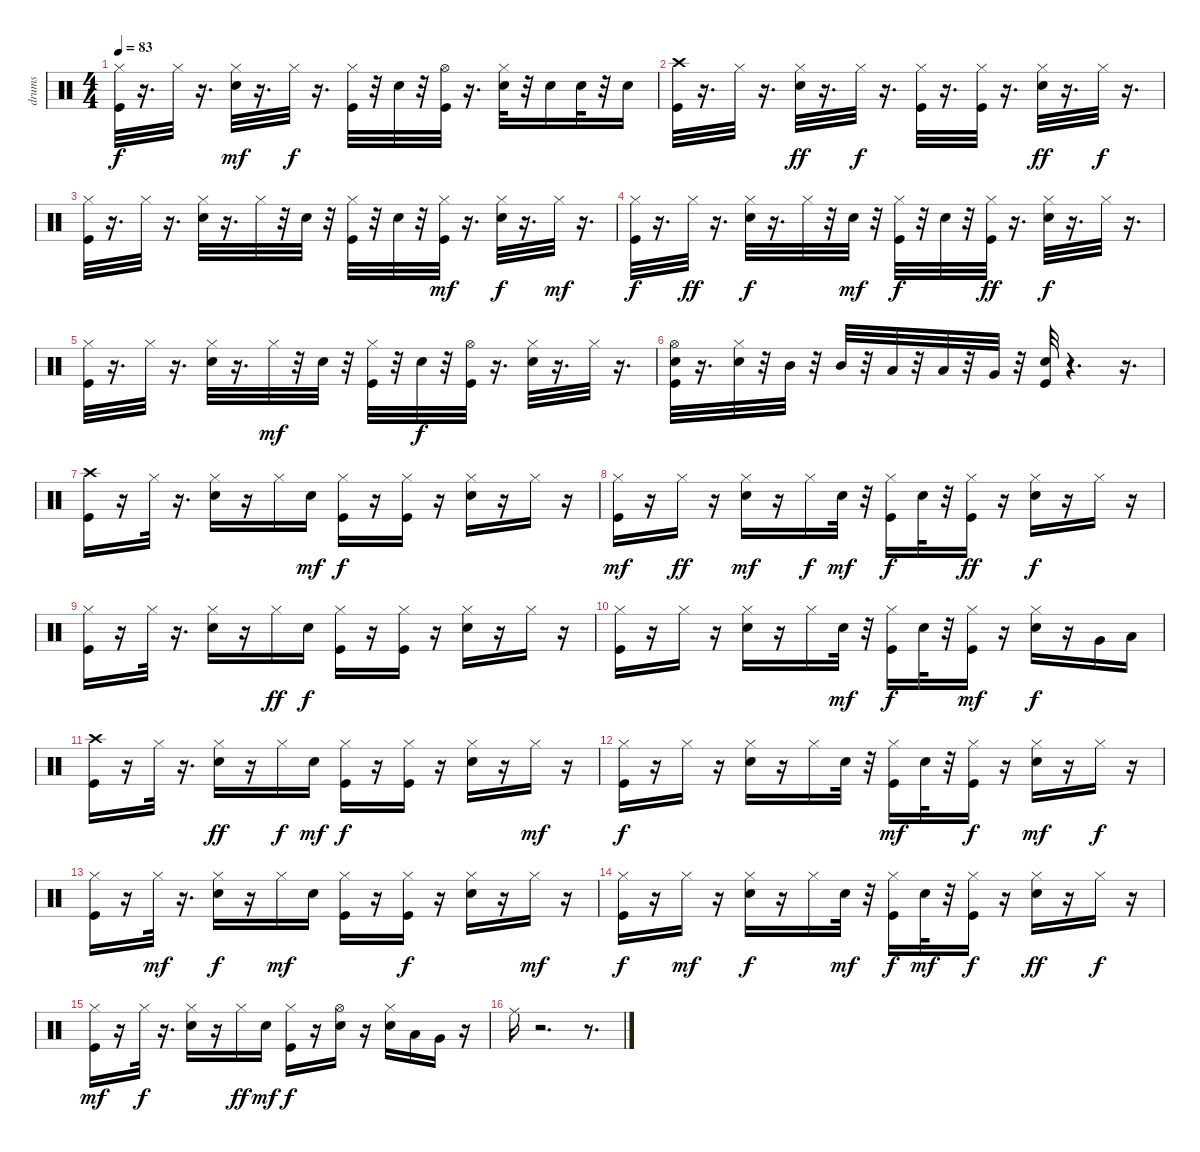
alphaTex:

\track ("drums" "drums") {instrument percussion}
\staff {score}
\articulation defaults
\ts (4 4)
\tempo 83
\clef neutral
\ks c
("Hi-Hat (closed)" "Kick (hit)").32{dy f} r.16{d} "Hi-Hat (closed)".32 r.16{d} ("Electric Snare (hit)" "Hi-Hat (closed)").32{dy mf} r.16{d} "Hi-Hat (closed)".32{dy f} r.16{d} ("Kick (hit)" "Hi-Hat (closed)").32 r.32 "Electric Snare (hit)".32 r.32 ("Hi-Hat (open)" "Kick (hit)").32 r.16{d} ("Electric Snare (hit)" "Hi-Hat (closed)").32 r.32 "Electric Snare (hit)".16 "Electric Snare (hit)".32 r.32 "Electric Snare (hit)".16 |
("Kick (hit)" "Crash high (hit)").32 r.16{d} "Hi-Hat (closed)".32 r.16{d} ("Hi-Hat (closed)" "Electric Snare (hit)").32{dy ff} r.16{d} "Hi-Hat (closed)".32{dy f} r.16{d} ("Hi-Hat (closed)" "Kick (hit)").32 r.16{d} ("Hi-Hat (closed)" "Kick (hit)").32 r.16{d} ("Electric Snare (hit)" "Hi-Hat (closed)").32{dy ff} r.16{d} "Hi-Hat (closed)".32{dy f} r.16{d} |
("Kick (hit)" "Hi-Hat (closed)").32 r.16{d} "Hi-Hat (closed)".32 r.16{d} ("Electric Snare (hit)" "Hi-Hat (closed)").32 r.16{d} "Hi-Hat (closed)".32 r.32 "Electric Snare (hit)".32 r.32 ("Hi-Hat (closed)" "Kick (hit)").32 r.32 "Electric Snare (hit)".32 r.32 ("Kick (hit)" "Hi-Hat (closed)").32{dy mf} r.16{d} ("Electric Snare (hit)" "Hi-Hat (closed)").32{dy f} r.16{d} "Hi-Hat (closed)".32{dy mf} r.16{d} |
("Hi-Hat (closed)" "Kick (hit)").32{dy f} r.16{d} "Hi-Hat (closed)".32{dy ff} r.16{d} ("Hi-Hat (closed)" "Electric Snare (hit)").32{dy f} r.16{d} "Hi-Hat (closed)".32 r.32 "Electric Snare (hit)".32{dy mf} r.32 ("Kick (hit)" "Hi-Hat (closed)").32{dy f} r.32 "Electric Snare (hit)".32 r.32 ("Hi-Hat (closed)" "Kick (hit)").32{dy ff} r.16{d} ("Hi-Hat (closed)" "Electric Snare (hit)").32{dy f} r.16{d} "Hi-Hat (closed)".32 r.16{d} |
("Kick (hit)" "Hi-Hat (closed)").32 r.16{d} "Hi-Hat (closed)".32 r.16{d} ("Electric Snare (hit)" "Hi-Hat (closed)").32 r.16{d} "Hi-Hat (closed)".32{dy mf} r.32 "Electric Snare (hit)".32 r.32 ("Kick (hit)" "Hi-Hat (closed)").32 r.32 "Electric Snare (hit)".32{dy f} r.32 ("Kick (hit)" "Hi-Hat (open)").32 r.16{d} ("Electric Snare (hit)" "Hi-Hat (closed)").32 r.16{d} "Hi-Hat (closed)".32 r.16{d} |
("Hi-Hat (open)" "Kick (hit)" "Electric Snare (hit)").32 r.16{d} ("Hi-Hat (closed)" "Electric Snare (hit)").32 r.32 "Mid Tom (hit)".32 r.32 "Mid Tom (hit)".32 r.32 "Low Tom (hit)".32 r.32 "Low Tom (hit)".32 r.32 "Very Low Tom (hit)".32 r.32 ("Kick (hit)" "Electric Snare (hit)").32 r.4{d} r.16{d} |
("Crash high (hit)" "Kick (hit)").16 r.16 "Hi-Hat (closed)".32 r.16{d} ("Hi-Hat (closed)" "Electric Snare (hit)").16 r.16 "Hi-Hat (closed)".16 "Electric Snare (hit)".16{dy mf} ("Kick (hit)" "Hi-Hat (closed)").16{dy f} r.16 ("Hi-Hat (closed)" "Kick (hit)").16 r.16 ("Electric Snare (hit)" "Hi-Hat (closed)").16 r.16 "Hi-Hat (closed)".16 r.16 |
("Kick (hit)" "Hi-Hat (closed)").16{dy mf} r.16 "Hi-Hat (closed)".16{dy ff} r.16 ("Hi-Hat (closed)" "Electric Snare (hit)").16{dy mf} r.16 "Hi-Hat (closed)".16{dy f} "Electric Snare (hit)".32{dy mf} r.32 ("Hi-Hat (closed)" "Kick (hit)").16{dy f} "Electric Snare (hit)".32 r.32 ("Kick (hit)" "Hi-Hat (closed)").16{dy ff} r.16 ("Electric Snare (hit)" "Hi-Hat (closed)").16{dy f} r.16 "Hi-Hat (closed)".16 r.16 |
("Kick (hit)" "Hi-Hat (closed)").16 r.16 "Hi-Hat (closed)".32 r.16{d} ("Hi-Hat (closed)" "Electric Snare (hit)").16 r.16 "Hi-Hat (closed)".16{dy ff} "Electric Snare (hit)".16{dy f} ("Kick (hit)" "Hi-Hat (closed)").16 r.16 ("Hi-Hat (closed)" "Kick (hit)").16 r.16 ("Hi-Hat (closed)" "Electric Snare (hit)").16 r.16 "Hi-Hat (closed)".16 r.16 |
("Kick (hit)" "Hi-Hat (closed)").16 r.16 "Hi-Hat (closed)".16 r.16 ("Hi-Hat (closed)" "Electric Snare (hit)").16 r.16 "Hi-Hat (closed)".16 "Electric Snare (hit)".32{dy mf} r.32 ("Hi-Hat (closed)" "Kick (hit)").16{dy f} "Electric Snare (hit)".32 r.32 ("Hi-Hat (closed)" "Kick (hit)").16{dy mf} r.16 ("Electric Snare (hit)" "Hi-Hat (closed)").16{dy f} r.16 "Very Low Tom (hit)".16 "Low Floor Tom (hit)".16 |
("Crash high (hit)" "Kick (hit)").16 r.16 "Hi-Hat (closed)".32 r.16{d} ("Electric Snare (hit)" "Hi-Hat (closed)").16{dy ff} r.16 "Hi-Hat (closed)".16{dy f} "Electric Snare (hit)".16{dy mf} ("Hi-Hat (closed)" "Kick (hit)").16{dy f} r.16 ("Kick (hit)" "Hi-Hat (closed)").16 r.16 ("Electric Snare (hit)" "Hi-Hat (closed)").16 r.16 "Hi-Hat (closed)".16{dy mf} r.16 |
("Hi-Hat (closed)" "Kick (hit)").16{dy f} r.16 "Hi-Hat (closed)".16 r.16 ("Electric Snare (hit)" "Hi-Hat (closed)").16 r.16 "Hi-Hat (closed)".16 "Electric Snare (hit)".32 r.32 ("Kick (hit)" "Hi-Hat (closed)").16{dy mf} "Electric Snare (hit)".32 r.32 ("Hi-Hat (closed)" "Kick (hit)").16{dy f} r.16 ("Electric Snare (hit)" "Hi-Hat (closed)").16{dy mf} r.16 "Hi-Hat (closed)".16{dy f} r.16 |
("Hi-Hat (closed)" "Kick (hit)").16 r.16 "Hi-Hat (closed)".32{dy mf} r.16{d} ("Hi-Hat (closed)" "Electric Snare (hit)").16{dy f} r.16 "Hi-Hat (closed)".16{dy mf} "Electric Snare (hit)".16 ("Kick (hit)" "Hi-Hat (closed)").16 r.16 ("Hi-Hat (closed)" "Kick (hit)").16{dy f} r.16 ("Electric Snare (hit)" "Hi-Hat (closed)").16 r.16 "Hi-Hat (closed)".16{dy mf} r.16 |
("Kick (hit)" "Hi-Hat (closed)").16{dy f} r.16 "Hi-Hat (closed)".16{dy mf} r.16 ("Hi-Hat (closed)" "Electric Snare (hit)").16{dy f} r.16 "Hi-Hat (closed)".16 "Electric Snare (hit)".32{dy mf} r.32 ("Hi-Hat (closed)" "Kick (hit)").16{dy f} "Electric Snare (hit)".32{dy mf} r.32 ("Kick (hit)" "Hi-Hat (closed)").16{dy f} r.16 ("Hi-Hat (closed)" "Electric Snare (hit)").16{dy ff} r.16 "Hi-Hat (closed)".16{dy f} r.16 |
("Kick (hit)" "Hi-Hat (closed)").16{dy mf} r.16 "Hi-Hat (closed)".32{dy f} r.16{d} ("Hi-Hat (closed)" "Electric Snare (hit)").16 r.16 "Hi-Hat (closed)".16{dy ff} "Electric Snare (hit)".16{dy mf} ("Kick (hit)" "Hi-Hat (closed)").16{dy f} r.16 ("Hi-Hat (open)" "Electric Snare (hit)").16 r.16 ("Electric Snare (hit)" "Hi-Hat (closed)").16 "Low Tom (hit)".16 "Very Low Tom (hit)".16 r.16 |
"Ride (middle)".16 r.2{d} r.8{d}
